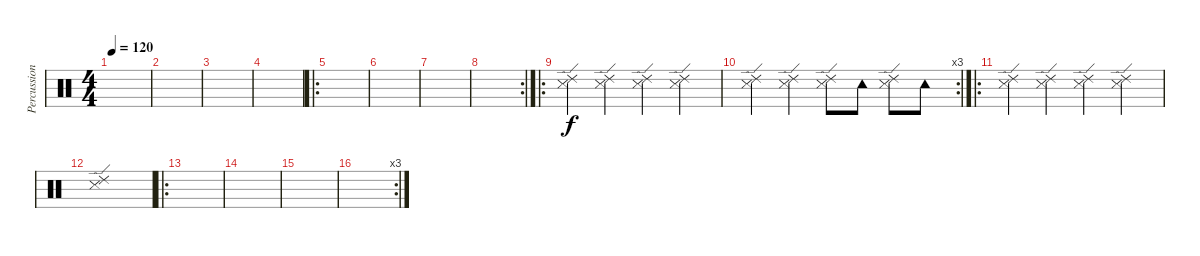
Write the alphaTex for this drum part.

\track ("Percussion" "Percussion") {instrument percussion}
\staff {score}
\articulation defaults
\ts (4 4)
\tempo 120
\clef neutral
\ks c
|
|
|
|
\ro
|
|
|
\rc 2
|
\ro
("Ride (edge) 2" "Snare (side stick) 3").4 ("Ride (edge) 2" "Snare (side stick) 3").4 ("Ride (edge) 2" "Snare (side stick) 3").4 ("Ride (edge) 2" "Snare (side stick) 3").4 |
\rc 3
("Ride (edge) 2" "Snare (side stick) 3").4 ("Ride (edge) 2" "Snare (side stick) 3").4 ("Ride (edge) 2" "Snare (side stick) 3").8 "Tambourine (hit)".8 ("Ride (edge) 2" "Snare (side stick) 3").8 "Tambourine (hit)".8 |
\ro
("Ride (edge) 2" "Snare (side stick) 3").4 ("Ride (edge) 2" "Snare (side stick) 3").4 ("Ride (edge) 2" "Snare (side stick) 3").4 ("Ride (edge) 2" "Snare (side stick) 3").4 |
("Ride (edge) 2" "Snare (side stick) 3").1 |
\ro
|
|
|
\rc 3
